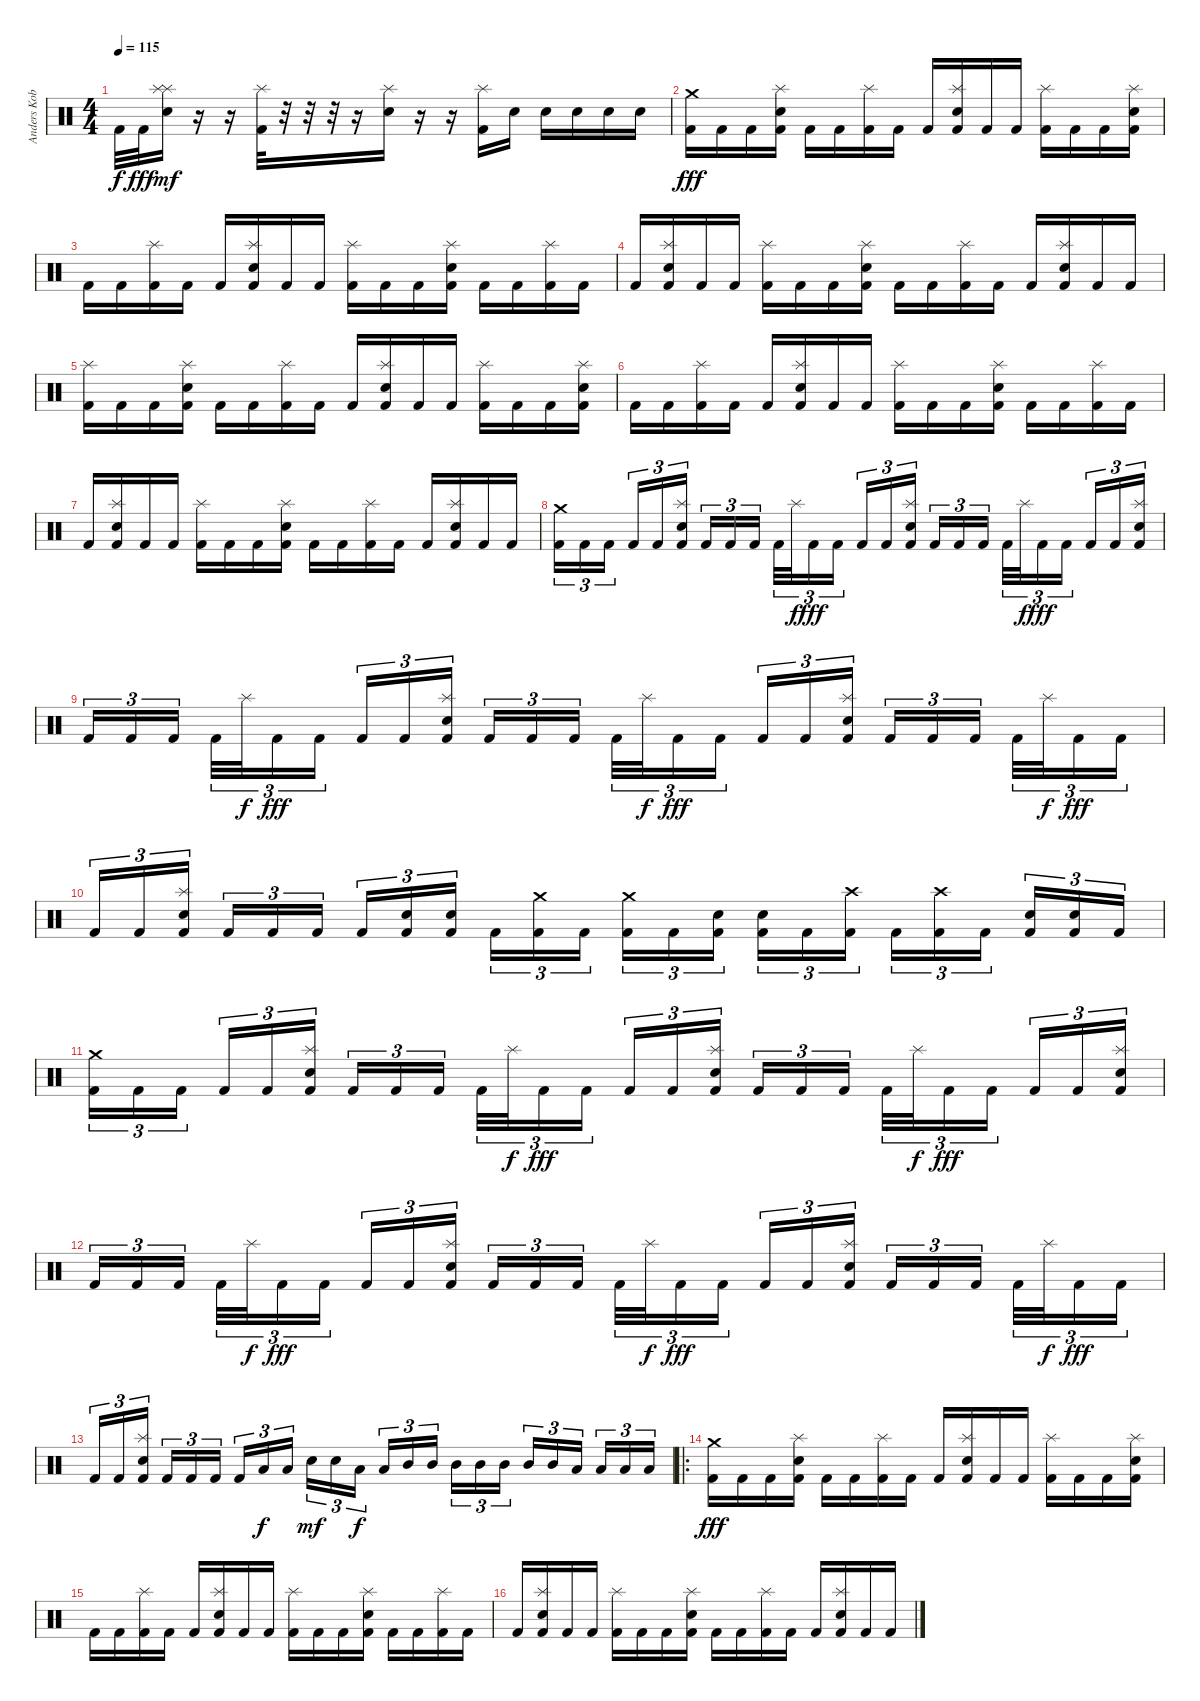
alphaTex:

\track ("Anders Kobro " "Anders Kob") {instrument percussion}
\staff {score}
\articulation defaults
\ts (4 4)
\tempo 115
\clef neutral
\ks c "Kick (hit) 2".32{dy f} "Kick (hit) 2".32{dy fff}
("Splash (hit)" "Splash (hit)" "Snare (hit) 2").16{dy mf} r.16 r.16 ("Splash (hit)" "Kick (hit) 2").32 r.32 r.32 r.32 r.16 ("Splash (hit)" "Snare (hit) 2").16 r.16 r.16 ("Splash (hit)" "Kick (hit) 2").16 "Snare (hit) 2".16 "Snare (hit) 2".16 "Snare (hit) 2".16 "Snare (hit) 2".16 "Snare (hit) 2".16 |
("Crash medium (hit)" "Kick (hit) 2").16{dy fff} "Kick (hit) 2".16 "Kick (hit) 2".16 ("Splash (hit)" "Snare (hit) 2" "Kick (hit) 2").16 "Kick (hit) 2".16 "Kick (hit) 2".16 ("Splash (hit)" "Kick (hit) 2").16 "Kick (hit) 2".16 "Kick (hit) 2".16 ("Splash (hit)" "Snare (hit) 2" "Kick (hit) 2").16 "Kick (hit) 2".16 "Kick (hit) 2".16 ("Splash (hit)" "Kick (hit) 2").16 "Kick (hit) 2".16 "Kick (hit) 2".16 ("Splash (hit)" "Snare (hit) 2" "Kick (hit) 2").16 |
"Kick (hit) 2".16 "Kick (hit) 2".16 ("Splash (hit)" "Kick (hit) 2").16 "Kick (hit) 2".16 "Kick (hit) 2".16 ("Splash (hit)" "Snare (hit) 2" "Kick (hit) 2").16 "Kick (hit) 2".16 "Kick (hit) 2".16 ("Splash (hit)" "Kick (hit) 2").16 "Kick (hit) 2".16 "Kick (hit) 2".16 ("Splash (hit)" "Snare (hit) 2" "Kick (hit) 2").16 "Kick (hit) 2".16 "Kick (hit) 2".16 ("Splash (hit)" "Kick (hit) 2").16 "Kick (hit) 2".16 |
"Kick (hit) 2".16 ("Splash (hit)" "Snare (hit) 2" "Kick (hit) 2").16 "Kick (hit) 2".16 "Kick (hit) 2".16 ("Splash (hit)" "Kick (hit) 2").16 "Kick (hit) 2".16 "Kick (hit) 2".16 ("Splash (hit)" "Snare (hit) 2" "Kick (hit) 2").16 "Kick (hit) 2".16 "Kick (hit) 2".16 ("Splash (hit)" "Kick (hit) 2").16 "Kick (hit) 2".16 "Kick (hit) 2".16 ("Splash (hit)" "Snare (hit) 2" "Kick (hit) 2").16 "Kick (hit) 2".16 "Kick (hit) 2".16 |
("Splash (hit)" "Kick (hit) 2").16 "Kick (hit) 2".16 "Kick (hit) 2".16 ("Splash (hit)" "Snare (hit) 2" "Kick (hit) 2").16 "Kick (hit) 2".16 "Kick (hit) 2".16 ("Splash (hit)" "Kick (hit) 2").16 "Kick (hit) 2".16 "Kick (hit) 2".16 ("Splash (hit)" "Snare (hit) 2" "Kick (hit) 2").16 "Kick (hit) 2".16 "Kick (hit) 2".16 ("Splash (hit)" "Kick (hit) 2").16 "Kick (hit) 2".16 "Kick (hit) 2".16 ("Splash (hit)" "Snare (hit) 2" "Kick (hit) 2").16 |
"Kick (hit) 2".16 "Kick (hit) 2".16 ("Splash (hit)" "Kick (hit) 2").16 "Kick (hit) 2".16 "Kick (hit) 2".16 ("Splash (hit)" "Snare (hit) 2" "Kick (hit) 2").16 "Kick (hit) 2".16 "Kick (hit) 2".16 ("Splash (hit)" "Kick (hit) 2").16 "Kick (hit) 2".16 "Kick (hit) 2".16 ("Splash (hit)" "Snare (hit) 2" "Kick (hit) 2").16 "Kick (hit) 2".16 "Kick (hit) 2".16 ("Splash (hit)" "Kick (hit) 2").16 "Kick (hit) 2".16 |
"Kick (hit) 2".16 ("Splash (hit)" "Snare (hit) 2" "Kick (hit) 2").16 "Kick (hit) 2".16 "Kick (hit) 2".16 ("Splash (hit)" "Kick (hit) 2").16 "Kick (hit) 2".16 "Kick (hit) 2".16 ("Splash (hit)" "Snare (hit) 2" "Kick (hit) 2").16 "Kick (hit) 2".16 "Kick (hit) 2".16 ("Splash (hit)" "Kick (hit) 2").16 "Kick (hit) 2".16 "Kick (hit) 2".16 ("Splash (hit)" "Snare (hit) 2" "Kick (hit) 2").16 "Kick (hit) 2".16 "Kick (hit) 2".16 |
("Crash medium (hit)" "Kick (hit) 2").16{tu (3 2)} "Kick (hit) 2".16{tu (3 2)} "Kick (hit) 2".16{tu (3 2) beam splitsecondary} "Kick (hit) 2".16{tu (3 2)} "Kick (hit) 2".16{tu (3 2)} ("Splash (hit)" "Snare (hit) 2" "Kick (hit) 2").16{tu (3 2)} "Kick (hit) 2".16{tu (3 2)} "Kick (hit) 2".16{tu (3 2)} "Kick (hit) 2".16{tu (3 2) beam splitsecondary} "Kick (hit) 2".32{tu (3 2)} "Splash (hit)".32{tu (3 2) dy f} "Kick (hit) 2".16{tu (3 2) dy fff} "Kick (hit) 2".16{tu (3 2)} "Kick (hit) 2".16{tu (3 2)} "Kick (hit) 2".16{tu (3 2)} ("Splash (hit)" "Snare (hit) 2" "Kick (hit) 2").16{tu (3 2) beam splitsecondary} "Kick (hit) 2".16{tu (3 2)} "Kick (hit) 2".16{tu (3 2)} "Kick (hit) 2".16{tu (3 2)} "Kick (hit) 2".32{tu (3 2)} "Splash (hit)".32{tu (3 2) dy f} "Kick (hit) 2".16{tu (3 2) dy fff} "Kick (hit) 2".16{tu (3 2) beam splitsecondary} "Kick (hit) 2".16{tu (3 2)} "Kick (hit) 2".16{tu (3 2)} ("Splash (hit)" "Snare (hit) 2" "Kick (hit) 2").16{tu (3 2)} |
"Kick (hit) 2".16{tu (3 2)} "Kick (hit) 2".16{tu (3 2)} "Kick (hit) 2".16{tu (3 2) beam splitsecondary} "Kick (hit) 2".32{tu (3 2)} "Splash (hit)".32{tu (3 2) dy f} "Kick (hit) 2".16{tu (3 2) dy fff} "Kick (hit) 2".16{tu (3 2)} "Kick (hit) 2".16{tu (3 2)} "Kick (hit) 2".16{tu (3 2)} ("Splash (hit)" "Snare (hit) 2" "Kick (hit) 2").16{tu (3 2) beam splitsecondary} "Kick (hit) 2".16{tu (3 2)} "Kick (hit) 2".16{tu (3 2)} "Kick (hit) 2".16{tu (3 2)} "Kick (hit) 2".32{tu (3 2)} "Splash (hit)".32{tu (3 2) dy f} "Kick (hit) 2".16{tu (3 2) dy fff} "Kick (hit) 2".16{tu (3 2) beam splitsecondary} "Kick (hit) 2".16{tu (3 2)} "Kick (hit) 2".16{tu (3 2)} ("Splash (hit)" "Snare (hit) 2" "Kick (hit) 2").16{tu (3 2)} "Kick (hit) 2".16{tu (3 2)} "Kick (hit) 2".16{tu (3 2)} "Kick (hit) 2".16{tu (3 2) beam splitsecondary} "Kick (hit) 2".32{tu (3 2)} "Splash (hit)".32{tu (3 2) dy f} "Kick (hit) 2".16{tu (3 2) dy fff} "Kick (hit) 2".16{tu (3 2)} |
"Kick (hit) 2".16{tu (3 2)} "Kick (hit) 2".16{tu (3 2)} ("Splash (hit)" "Snare (hit) 2" "Kick (hit) 2").16{tu (3 2) beam splitsecondary} "Kick (hit) 2".16{tu (3 2)} "Kick (hit) 2".16{tu (3 2)} "Kick (hit) 2".16{tu (3 2)} "Kick (hit) 2".16{tu (3 2)} ("Snare (hit) 2" "Kick (hit) 2").16{tu (3 2)} ("Snare (hit) 2" "Kick (hit) 2").16{tu (3 2) beam splitsecondary} "Kick (hit) 2".16{tu (3 2)} ("Crash medium (hit)" "Kick (hit) 2").16{tu (3 2)} "Kick (hit) 2".16{tu (3 2)} ("Crash medium (hit)" "Kick (hit) 2").16{tu (3 2)} "Kick (hit) 2".16{tu (3 2)} ("Snare (hit) 2" "Kick (hit) 2").16{tu (3 2) beam splitsecondary} ("Snare (hit) 2" "Kick (hit) 2").16{tu (3 2)} "Kick (hit) 2".16{tu (3 2)} ("Crash high (hit)" "Kick (hit) 2").16{tu (3 2)} "Kick (hit) 2".16{tu (3 2)} ("Crash high (hit)" "Kick (hit) 2").16{tu (3 2)} "Kick (hit) 2".16{tu (3 2) beam splitsecondary} ("Snare (hit) 2" "Kick (hit) 2").16{tu (3 2)} ("Snare (hit) 2" "Kick (hit) 2").16{tu (3 2)} "Kick (hit) 2".16{tu (3 2)} |
("Crash medium (hit)" "Kick (hit) 2").16{tu (3 2)} "Kick (hit) 2".16{tu (3 2)} "Kick (hit) 2".16{tu (3 2) beam splitsecondary} "Kick (hit) 2".16{tu (3 2)} "Kick (hit) 2".16{tu (3 2)} ("Splash (hit)" "Snare (hit) 2" "Kick (hit) 2").16{tu (3 2)} "Kick (hit) 2".16{tu (3 2)} "Kick (hit) 2".16{tu (3 2)} "Kick (hit) 2".16{tu (3 2) beam splitsecondary} "Kick (hit) 2".32{tu (3 2)} "Splash (hit)".32{tu (3 2) dy f} "Kick (hit) 2".16{tu (3 2) dy fff} "Kick (hit) 2".16{tu (3 2)} "Kick (hit) 2".16{tu (3 2)} "Kick (hit) 2".16{tu (3 2)} ("Splash (hit)" "Snare (hit) 2" "Kick (hit) 2").16{tu (3 2) beam splitsecondary} "Kick (hit) 2".16{tu (3 2)} "Kick (hit) 2".16{tu (3 2)} "Kick (hit) 2".16{tu (3 2)} "Kick (hit) 2".32{tu (3 2)} "Splash (hit)".32{tu (3 2) dy f} "Kick (hit) 2".16{tu (3 2) dy fff} "Kick (hit) 2".16{tu (3 2) beam splitsecondary} "Kick (hit) 2".16{tu (3 2)} "Kick (hit) 2".16{tu (3 2)} ("Splash (hit)" "Snare (hit) 2" "Kick (hit) 2").16{tu (3 2)} |
"Kick (hit) 2".16{tu (3 2)} "Kick (hit) 2".16{tu (3 2)} "Kick (hit) 2".16{tu (3 2) beam splitsecondary} "Kick (hit) 2".32{tu (3 2)} "Splash (hit)".32{tu (3 2) dy f} "Kick (hit) 2".16{tu (3 2) dy fff} "Kick (hit) 2".16{tu (3 2)} "Kick (hit) 2".16{tu (3 2)} "Kick (hit) 2".16{tu (3 2)} ("Splash (hit)" "Snare (hit) 2" "Kick (hit) 2").16{tu (3 2) beam splitsecondary} "Kick (hit) 2".16{tu (3 2)} "Kick (hit) 2".16{tu (3 2)} "Kick (hit) 2".16{tu (3 2)} "Kick (hit) 2".32{tu (3 2)} "Splash (hit)".32{tu (3 2) dy f} "Kick (hit) 2".16{tu (3 2) dy fff} "Kick (hit) 2".16{tu (3 2) beam splitsecondary} "Kick (hit) 2".16{tu (3 2)} "Kick (hit) 2".16{tu (3 2)} ("Splash (hit)" "Snare (hit) 2" "Kick (hit) 2").16{tu (3 2)} "Kick (hit) 2".16{tu (3 2)} "Kick (hit) 2".16{tu (3 2)} "Kick (hit) 2".16{tu (3 2) beam splitsecondary} "Kick (hit) 2".32{tu (3 2)} "Splash (hit)".32{tu (3 2) dy f} "Kick (hit) 2".16{tu (3 2) dy fff} "Kick (hit) 2".16{tu (3 2)} |
"Kick (hit) 2".16{tu (3 2)} "Kick (hit) 2".16{tu (3 2)} ("Splash (hit)" "Snare (hit) 2" "Kick (hit) 2").16{tu (3 2) beam splitsecondary} "Kick (hit) 2".16{tu (3 2)} "Kick (hit) 2".16{tu (3 2)} "Kick (hit) 2".16{tu (3 2)} "Kick (hit) 2".16{tu (3 2)} "Low Tom (hit)".16{tu (3 2) dy f} "Low Tom (hit)".16{tu (3 2) beam splitsecondary} "Snare (hit) 2".16{tu (3 2) dy mf} "Snare (hit) 2".16{tu (3 2)} "Low Tom (hit)".16{tu (3 2) dy f} "Low Tom (hit)".16{tu (3 2)} "Mid Tom (hit)".16{tu (3 2)} "Mid Tom (hit)".16{tu (3 2) beam splitsecondary} "Mid Tom (hit)".16{tu (3 2)} "Mid Tom (hit)".16{tu (3 2)} "Mid Tom (hit)".16{tu (3 2)} "Mid Tom (hit)".16{tu (3 2)} "Mid Tom (hit)".16{tu (3 2)} "Low Tom (hit)".16{tu (3 2) beam splitsecondary} "Low Tom (hit)".16{tu (3 2)} "Low Tom (hit)".16{tu (3 2)} "Low Tom (hit)".16{tu (3 2)} |
\ro
("Crash medium (hit)" "Kick (hit) 2").16{dy fff} "Kick (hit) 2".16 "Kick (hit) 2".16 ("Splash (hit)" "Snare (hit) 2" "Kick (hit) 2").16 "Kick (hit) 2".16 "Kick (hit) 2".16 ("Splash (hit)" "Kick (hit) 2").16 "Kick (hit) 2".16 "Kick (hit) 2".16 ("Splash (hit)" "Snare (hit) 2" "Kick (hit) 2").16 "Kick (hit) 2".16 "Kick (hit) 2".16 ("Splash (hit)" "Kick (hit) 2").16 "Kick (hit) 2".16 "Kick (hit) 2".16 ("Splash (hit)" "Snare (hit) 2" "Kick (hit) 2").16 |
"Kick (hit) 2".16 "Kick (hit) 2".16 ("Splash (hit)" "Kick (hit) 2").16 "Kick (hit) 2".16 "Kick (hit) 2".16 ("Splash (hit)" "Snare (hit) 2" "Kick (hit) 2").16 "Kick (hit) 2".16 "Kick (hit) 2".16 ("Splash (hit)" "Kick (hit) 2").16 "Kick (hit) 2".16 "Kick (hit) 2".16 ("Splash (hit)" "Snare (hit) 2" "Kick (hit) 2").16 "Kick (hit) 2".16 "Kick (hit) 2".16 ("Splash (hit)" "Kick (hit) 2").16 "Kick (hit) 2".16 |
"Kick (hit) 2".16 ("Splash (hit)" "Snare (hit) 2" "Kick (hit) 2").16 "Kick (hit) 2".16 "Kick (hit) 2".16 ("Splash (hit)" "Kick (hit) 2").16 "Kick (hit) 2".16 "Kick (hit) 2".16 ("Splash (hit)" "Snare (hit) 2" "Kick (hit) 2").16 "Kick (hit) 2".16 "Kick (hit) 2".16 ("Splash (hit)" "Kick (hit) 2").16 "Kick (hit) 2".16 "Kick (hit) 2".16 ("Splash (hit)" "Snare (hit) 2" "Kick (hit) 2").16 "Kick (hit) 2".16 "Kick (hit) 2".16
